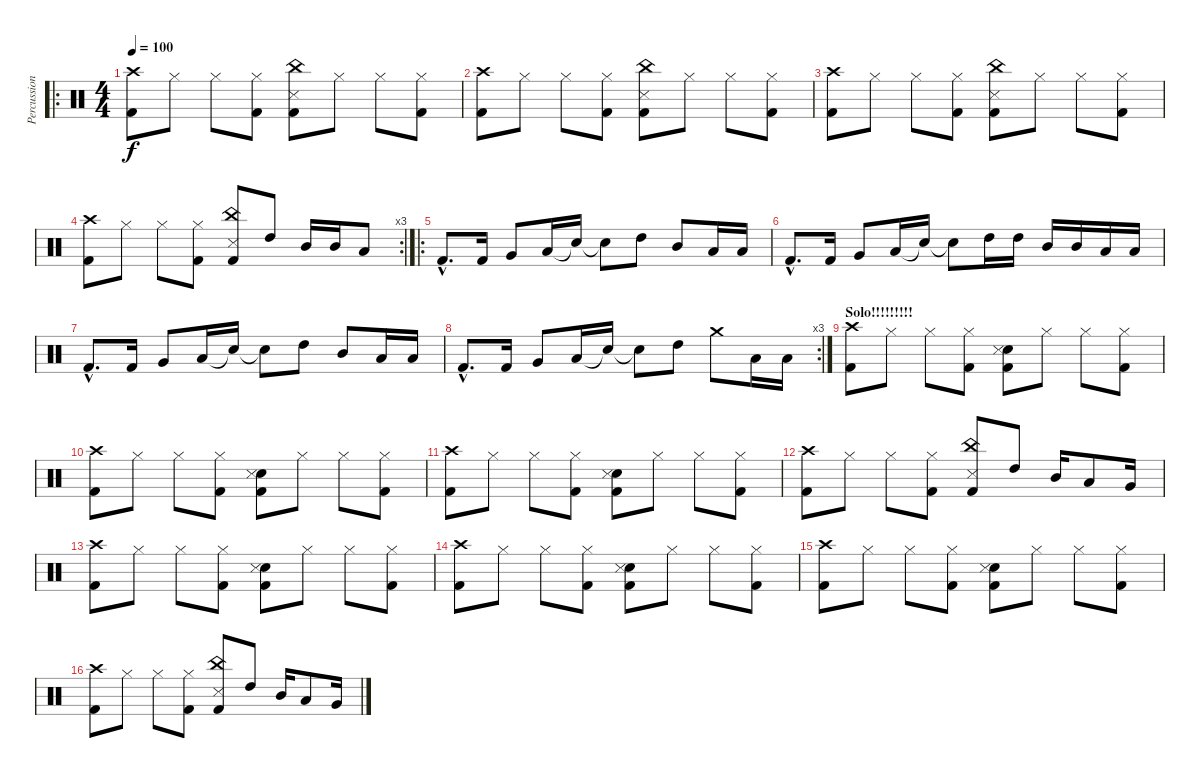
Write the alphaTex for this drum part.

\track ("Percussion" "Percussion") {instrument percussion}
\staff {score}
\articulation defaults
\ro
\ts (4 4)
\tempo 100
\clef neutral
\ks c
("Crash high (hit)" "Kick (hit) 2").8{dy f} "Hi-Hat (closed)".8 "Hi-Hat (closed)".8 ("Hi-Hat (closed)" "Kick (hit) 2").8 ("China (hit)" "Snare (side stick) 3" "Kick (hit) 2").8 "Hi-Hat (closed)".8 "Hi-Hat (closed)".8 ("Hi-Hat (closed)" "Kick (hit) 2").8 |
("Crash high (hit)" "Kick (hit) 2").8 "Hi-Hat (closed)".8 "Hi-Hat (closed)".8 ("Hi-Hat (closed)" "Kick (hit) 2").8 ("China (hit)" "Snare (side stick) 3" "Kick (hit) 2").8 "Hi-Hat (closed)".8 "Hi-Hat (closed)".8 ("Hi-Hat (closed)" "Kick (hit) 2").8 |
("Crash high (hit)" "Kick (hit) 2").8 "Hi-Hat (closed)".8 "Hi-Hat (closed)".8 ("Hi-Hat (closed)" "Kick (hit) 2").8 ("China (hit)" "Snare (side stick) 3" "Kick (hit) 2").8 "Hi-Hat (closed)".8 "Hi-Hat (closed)".8 ("Hi-Hat (closed)" "Kick (hit) 2").8 |
\rc 3
("Crash high (hit)" "Kick (hit) 2").8 "Hi-Hat (closed)".8 "Hi-Hat (closed)".8 ("Hi-Hat (closed)" "Kick (hit) 2").8 ("China (hit)" "Snare (side stick) 3" "Kick (hit) 2").8 "High Tom (hit)".8 "Mid Tom (hit)".16 "Mid Tom (hit)".16 "Low Tom (hit)".8 |
\ro "Kick (hit) 2"{hac}.8{d} "Kick (hit) 2".16 "Very Low Tom (hit)".8 "Low Floor Tom (hit)".16 "Snare (hit)"{t}.16 "Snare (hit)"{t}.8 "High Tom (hit)".8 "Mid Tom (hit)".8 "Low Tom (hit)".16 "Low Tom (hit)".16
|
"Kick (hit) 2"{hac}.8{d} "Kick (hit) 2".16 "Very Low Tom (hit)".8 "Low Floor Tom (hit)".16 "Snare (hit)"{t}.16 "Snare (hit)"{t}.8 "High Tom (hit)".16 "High Tom (hit)".16 "Mid Tom (hit)".16 "Mid Tom (hit)".16 "Low Tom (hit)".16 "Low Tom (hit)".16 |
"Kick (hit) 2"{hac}.8{d} "Kick (hit) 2".16 "Very Low Tom (hit)".8 "Low Floor Tom (hit)".16 "Snare (hit)"{t}.16 "Snare (hit)"{t}.8 "High Tom (hit)".8 "Mid Tom (hit)".8 "Low Tom (hit)".16 "Low Tom (hit)".16 |
\rc 3 "Kick (hit) 2"{hac}.8{d} "Kick (hit) 2".16 "Very Low Tom (hit)".8 "Low Floor Tom (hit)".16 "Snare (hit)"{t}.16 "Snare (hit)"{t}.8 "High Tom (hit)".8 "Crash medium (hit)".8 "Low Tom (hit)".16 "Low Tom (hit)".16
|
\section ("" "Solo!!!!!!!!!")
("Crash high (hit)" "Kick (hit) 2").8 "Hi-Hat (closed)".8 "Hi-Hat (closed)".8 ("Hi-Hat (closed)" "Kick (hit) 2").8 ("Electric Snare (hit)" "Snare (side stick) 3" "Kick (hit) 2").8 "Hi-Hat (closed)".8 "Hi-Hat (closed)".8 ("Hi-Hat (closed)" "Kick (hit) 2").8 |
("Crash high (hit)" "Kick (hit) 2").8 "Hi-Hat (closed)".8 "Hi-Hat (closed)".8 ("Hi-Hat (closed)" "Kick (hit) 2").8 ("Electric Snare (hit)" "Snare (side stick) 3" "Kick (hit) 2").8 "Hi-Hat (closed)".8 "Hi-Hat (closed)".8 ("Hi-Hat (closed)" "Kick (hit) 2").8 |
("Crash high (hit)" "Kick (hit) 2").8 "Hi-Hat (closed)".8 "Hi-Hat (closed)".8 ("Hi-Hat (closed)" "Kick (hit) 2").8 ("Electric Snare (hit)" "Snare (side stick) 3" "Kick (hit) 2").8 "Hi-Hat (closed)".8 "Hi-Hat (closed)".8 ("Hi-Hat (closed)" "Kick (hit) 2").8 |
("Crash high (hit)" "Kick (hit) 2").8 "Hi-Hat (closed)".8 "Hi-Hat (closed)".8 ("Hi-Hat (closed)" "Kick (hit) 2").8 ("China (hit)" "Snare (side stick) 3" "Kick (hit) 2").8 "High Tom (hit)".8 "Mid Tom (hit)".16 "Low Tom (hit)".8 "Very Low Tom (hit)".16 |
("Crash high (hit)" "Kick (hit) 2").8 "Hi-Hat (closed)".8 "Hi-Hat (closed)".8 ("Hi-Hat (closed)" "Kick (hit) 2").8 ("Electric Snare (hit)" "Snare (side stick) 3" "Kick (hit) 2").8 "Hi-Hat (closed)".8 "Hi-Hat (closed)".8 ("Hi-Hat (closed)" "Kick (hit) 2").8 |
("Crash high (hit)" "Kick (hit) 2").8 "Hi-Hat (closed)".8 "Hi-Hat (closed)".8 ("Hi-Hat (closed)" "Kick (hit) 2").8 ("Electric Snare (hit)" "Snare (side stick) 3" "Kick (hit) 2").8 "Hi-Hat (closed)".8 "Hi-Hat (closed)".8 ("Hi-Hat (closed)" "Kick (hit) 2").8 |
("Crash high (hit)" "Kick (hit) 2").8 "Hi-Hat (closed)".8 "Hi-Hat (closed)".8 ("Hi-Hat (closed)" "Kick (hit) 2").8 ("Electric Snare (hit)" "Snare (side stick) 3" "Kick (hit) 2").8 "Hi-Hat (closed)".8 "Hi-Hat (closed)".8 ("Hi-Hat (closed)" "Kick (hit) 2").8 |
("Crash high (hit)" "Kick (hit) 2").8 "Hi-Hat (closed)".8 "Hi-Hat (closed)".8 ("Hi-Hat (closed)" "Kick (hit) 2").8 ("China (hit)" "Snare (side stick) 3" "Kick (hit) 2").8 "High Tom (hit)".8 "Mid Tom (hit)".16 "Low Tom (hit)".8 "Very Low Tom (hit)".16
